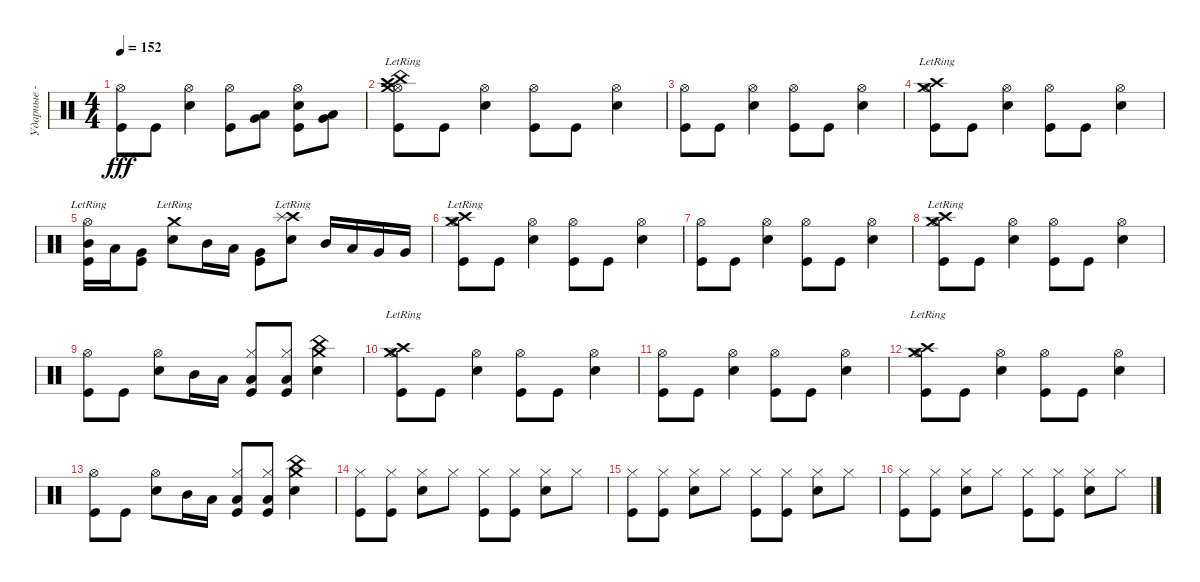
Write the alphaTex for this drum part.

\track ("Ударные - Трэвис" "Ударные - ") {instrument percussion}
\staff {score}
\articulation defaults
\ts (4 4)
\tempo 152
\clef neutral
\ks c
("Hi-Hat (open)" "Kick (hit)").8{dy fff} "Kick (hit)".8 ("Hi-Hat (open)" "Snare (hit) 2").4 ("Hi-Hat (open)" "Kick (hit)").8 ("Very Low Tom (hit)" "Low Tom (hit)").8 ("Hi-Hat (open)" "Snare (hit) 2" "Kick (hit)").8 ("Very Low Tom (hit)" "Low Tom (hit)").8 |
("Crash high (hit)"{lr} "Hi-Hat (open)" "Crash medium (hit)"{lr} "Kick (hit)" "China (hit)").8 "Kick (hit)".8 ("Hi-Hat (open)" "Snare (hit) 2").4 ("Hi-Hat (open)" "Kick (hit)").8 "Kick (hit)".8 ("Hi-Hat (open)" "Snare (hit) 2").4 |
("Hi-Hat (open)" "Kick (hit)").8 "Kick (hit)".8 ("Hi-Hat (open)" "Snare (hit) 2").4 ("Hi-Hat (open)" "Kick (hit)").8 "Kick (hit)".8 ("Hi-Hat (open)" "Snare (hit) 2").4 |
("Crash high (hit)"{lr} "Hi-Hat (open)" "Crash medium (hit)"{lr} "Kick (hit)").8 "Kick (hit)".8 ("Hi-Hat (open)" "Snare (hit) 2").4 ("Hi-Hat (open)" "Kick (hit)").8 "Kick (hit)".8 ("Hi-Hat (open)" "Snare (hit) 2").4 |
("Hi-Hat (open)"{lr} "Mid Tom (hit)" "Kick (hit)").16 "Low Tom (hit)".16 ("Very Low Tom (hit)" "Kick (hit)").8 ("Crash medium (hit)"{lr} "Snare (hit) 2").8 "Mid Tom (hit)".16 "Low Tom (hit)".16 ("Very Low Tom (hit)" "Kick (hit)").8 ("Crash high (hit)"{lr} "Splash (hit)"{lr} "Snare (hit) 2").8 "Mid Tom (hit)".16 "Low Tom (hit)".16 "Very Low Tom (hit)".16 "Very Low Tom (hit)".16 |
("Crash high (hit)"{lr} "Hi-Hat (open)" "Crash medium (hit)"{lr} "Kick (hit)").8 "Kick (hit)".8 ("Hi-Hat (open)" "Snare (hit) 2").4 ("Hi-Hat (open)" "Kick (hit)").8 "Kick (hit)".8 ("Hi-Hat (open)" "Snare (hit) 2").4 |
("Hi-Hat (open)" "Kick (hit)").8 "Kick (hit)".8 ("Hi-Hat (open)" "Snare (hit) 2").4 ("Hi-Hat (open)" "Kick (hit)").8 "Kick (hit)".8 ("Hi-Hat (open)" "Snare (hit) 2").4 |
("Crash high (hit)"{lr} "Hi-Hat (open)" "Crash medium (hit)"{lr} "Kick (hit)").8 "Kick (hit)".8 ("Hi-Hat (open)" "Snare (hit) 2").4 ("Hi-Hat (open)" "Kick (hit)").8 "Kick (hit)".8 ("Hi-Hat (open)" "Snare (hit) 2").4 |
("Hi-Hat (open)" "Kick (hit)").8 "Kick (hit)".8 ("Hi-Hat (open)" "Snare (hit) 2").8 "Mid Tom (hit)".16 "Low Tom (hit)".16 ("Hi-Hat (closed)" "Low Floor Tom (hit)" "Kick (hit)").8 ("Hi-Hat (closed)" "Low Floor Tom (hit)" "Kick (hit)").8 ("Crash medium (hit)" "China (hit)" "Snare (hit) 2").4 |
("Crash high (hit)"{lr} "Hi-Hat (open)" "Crash medium (hit)"{lr} "Kick (hit)").8 "Kick (hit)".8 ("Hi-Hat (open)" "Snare (hit) 2").4 ("Hi-Hat (open)" "Kick (hit)").8 "Kick (hit)".8 ("Hi-Hat (open)" "Snare (hit) 2").4 |
("Hi-Hat (open)" "Kick (hit)").8 "Kick (hit)".8 ("Hi-Hat (open)" "Snare (hit) 2").4 ("Hi-Hat (open)" "Kick (hit)").8 "Kick (hit)".8 ("Hi-Hat (open)" "Snare (hit) 2").4 |
("Crash high (hit)"{lr} "Hi-Hat (open)" "Crash medium (hit)"{lr} "Kick (hit)").8 "Kick (hit)".8 ("Hi-Hat (open)" "Snare (hit) 2").4 ("Hi-Hat (open)" "Kick (hit)").8 "Kick (hit)".8 ("Hi-Hat (open)" "Snare (hit) 2").4 |
("Hi-Hat (open)" "Kick (hit)").8 "Kick (hit)".8 ("Hi-Hat (open)" "Snare (hit) 2").8 "Mid Tom (hit)".16 "Low Tom (hit)".16 ("Hi-Hat (closed)" "Low Floor Tom (hit)" "Kick (hit)").8 ("Hi-Hat (closed)" "Low Floor Tom (hit)" "Kick (hit)").8 ("Crash medium (hit)" "China (hit)" "Snare (hit) 2").4 |
("Hi-Hat (closed)" "Kick (hit)").8 ("Hi-Hat (closed)" "Kick (hit)").8 ("Hi-Hat (closed)" "Snare (hit) 2").8 "Hi-Hat (closed)".8 ("Hi-Hat (closed)" "Kick (hit)").8 ("Hi-Hat (closed)" "Kick (hit)").8 ("Hi-Hat (closed)" "Snare (hit) 2").8 "Hi-Hat (closed)".8 |
("Hi-Hat (closed)" "Kick (hit)").8 ("Hi-Hat (closed)" "Kick (hit)").8 ("Hi-Hat (closed)" "Snare (hit) 2").8 "Hi-Hat (closed)".8 ("Hi-Hat (closed)" "Kick (hit)").8 ("Hi-Hat (closed)" "Kick (hit)").8 ("Hi-Hat (closed)" "Snare (hit) 2").8 "Hi-Hat (closed)".8 |
("Hi-Hat (closed)" "Kick (hit)").8 ("Hi-Hat (closed)" "Kick (hit)").8 ("Hi-Hat (closed)" "Snare (hit) 2").8 "Hi-Hat (closed)".8 ("Hi-Hat (closed)" "Kick (hit)").8 ("Hi-Hat (closed)" "Kick (hit)").8 ("Hi-Hat (closed)" "Snare (hit) 2").8 "Hi-Hat (closed)".8
